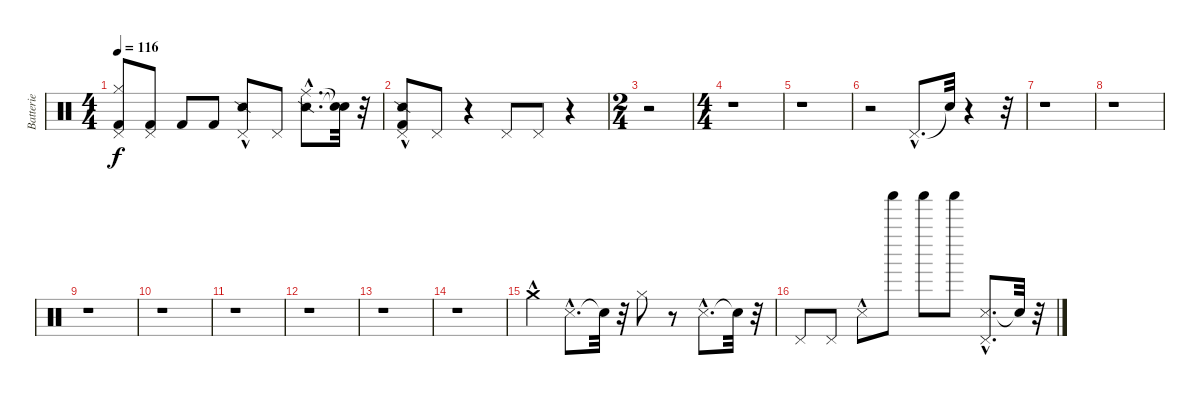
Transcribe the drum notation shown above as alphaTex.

\track ("Batterie" "Batterie") {instrument percussion}
\staff {score}
\articulation defaults
\ts (4 4)
\tempo 116
\clef neutral
\ks c
("Kick (hit) 2" "Hi-Hat (closed)" "Pedal Hi-Hat (hit)").8{dy f} ("Kick (hit) 2" "Pedal Hi-Hat (hit)").8 "Kick (hit) 2".8 "Kick (hit) 2".8 ("Snare (side stick) 2"{hac} "Pedal Hi-Hat (hit)").8 "Pedal Hi-Hat (hit)".8 ("Snare (side stick) 2"{hac} "Ride (middle)"{hac}).8{d} ("Snare (hit)"{t} "Snare (hit)"{t}).32 r.32 |
("Snare (side stick) 2"{hac} "Kick (hit) 2"{hac} "Pedal Hi-Hat (hit)").8 "Pedal Hi-Hat (hit)".8 r.4 "Pedal Hi-Hat (hit)".8 "Pedal Hi-Hat (hit)".8 r.4 |
\ts (2 4)
r.2 |
\ts (4 4)
r.1 |
r.1 |
r.2 "Pedal Hi-Hat (hit)"{hac}.8{d} "Snare (hit)"{t}.32 r.4 r.32 |
r.1 |
r.1 |
r.1 |
r.1 |
r.1 |
r.1 |
r.1 |
r.1 |
"Crash medium (hit)"{hac}.4 "Snare (side stick) 3"{hac}.8{d} "Snare (hit)"{t}.32 r.32 "Hi-Hat (closed)".8 r.8 "Snare (side stick) 3"{hac}.8{d} "Snare (hit)"{t}.32 r.32 |
"Pedal Hi-Hat (hit)".8 "Pedal Hi-Hat (hit)".8 "Snare (side stick) 3"{hac}.8 "Shaker (hit)".8 "Shaker (hit)".8 "Shaker (hit)".8 ("Snare (side stick) 3"{hac} "Pedal Hi-Hat (hit)").8{d} "Snare (hit)"{t}.32 r.32
